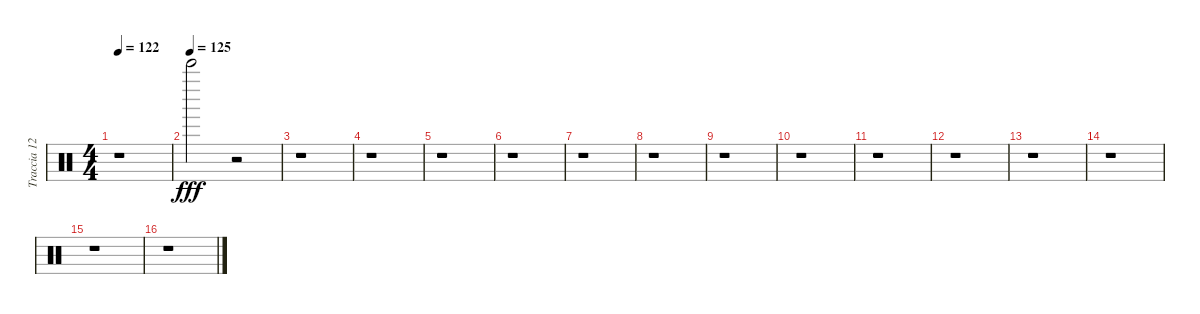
\track ("Traccia 12-13-14-15-16-17-18" "Traccia 12") {instrument percussion}
\staff {score}
\articulation defaults
\ts (4 4)
\tempo 122
\clef neutral
\ks c
r.1{dy f} |
\tempo (125)
"Bell Tree (hit)".2{dy fff} r.2 |
r.1 |
r.1 |
r.1 |
r.1 |
r.1 |
r.1 |
r.1 |
r.1 |
r.1 |
r.1 |
r.1 |
r.1 |
r.1 |
r.1
